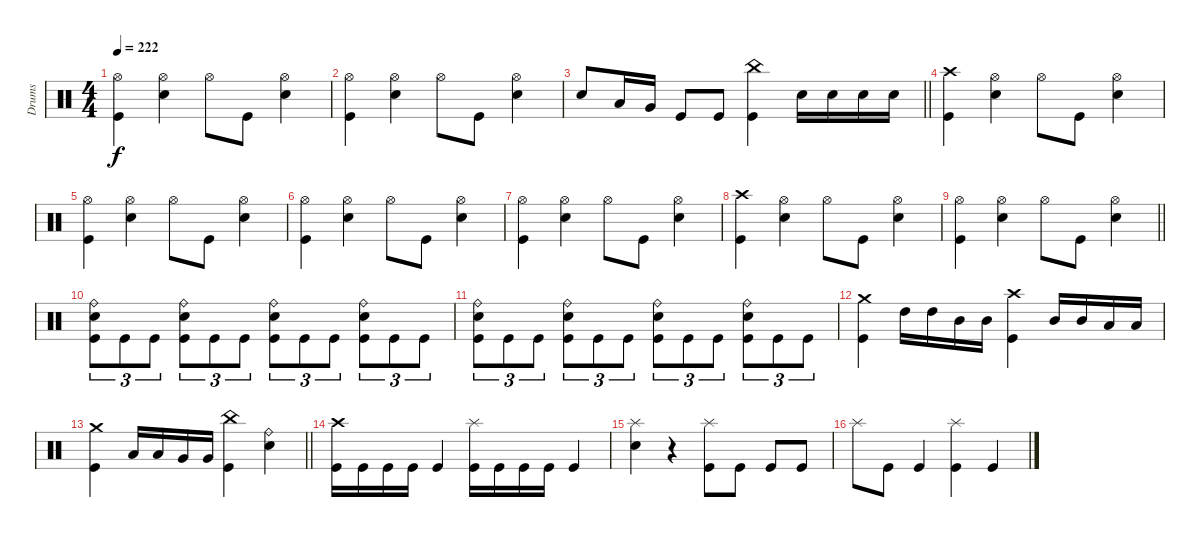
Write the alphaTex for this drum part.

\track ("Drums" "Drums") {instrument percussion}
\staff
\articulation defaults
\ts (4 4)
\tempo 222
\clef neutral
\ks c
("Hi-Hat (open)" "Kick (hit)").4{dy f} ("Hi-Hat (open)" "Electric Snare (hit)").4 "Hi-Hat (open)".8 "Kick (hit)".8 ("Hi-Hat (open)" "Electric Snare (hit)").4 |
("Hi-Hat (open)" "Kick (hit)").4 ("Hi-Hat (open)" "Electric Snare (hit)").4 "Hi-Hat (open)".8 "Kick (hit)".8 ("Hi-Hat (open)" "Electric Snare (hit)").4 |
\barLineRight lightlight "Electric Snare (hit)".8 "Low Tom (hit)".16 "Very Low Tom (hit)".16 "Kick (hit)".8 "Kick (hit)".8
("China (hit)" "Kick (hit)").4 "Electric Snare (hit)".16 "Electric Snare (hit)".16 "Electric Snare (hit)".16 "Electric Snare (hit)".16 |
("Crash high (hit)" "Kick (hit)").4 ("Hi-Hat (open)" "Electric Snare (hit)").4 "Hi-Hat (open)".8 "Kick (hit)".8 ("Hi-Hat (open)" "Electric Snare (hit)").4 |
("Hi-Hat (open)" "Kick (hit)").4 ("Hi-Hat (open)" "Electric Snare (hit)").4 "Hi-Hat (open)".8 "Kick (hit)".8 ("Hi-Hat (open)" "Electric Snare (hit)").4 |
("Hi-Hat (open)" "Kick (hit)").4 ("Hi-Hat (open)" "Electric Snare (hit)").4 "Hi-Hat (open)".8 "Kick (hit)".8 ("Hi-Hat (open)" "Electric Snare (hit)").4 |
("Hi-Hat (open)" "Kick (hit)").4 ("Hi-Hat (open)" "Electric Snare (hit)").4 "Hi-Hat (open)".8 "Kick (hit)".8 ("Hi-Hat (open)" "Electric Snare (hit)").4 |
("Crash high (hit)" "Kick (hit)").4 ("Hi-Hat (open)" "Electric Snare (hit)").4 "Hi-Hat (open)".8 "Kick (hit)".8 ("Hi-Hat (open)" "Electric Snare (hit)").4 |
\barLineRight lightlight
("Hi-Hat (open)" "Kick (hit)").4 ("Hi-Hat (open)" "Electric Snare (hit)").4 "Hi-Hat (open)".8 "Kick (hit)".8 ("Hi-Hat (open)" "Electric Snare (hit)").4 |
("Ride (bell)" "Electric Snare (hit)" "Kick (hit)").8{tu (3 2)} "Kick (hit)".8{tu (3 2)} "Kick (hit)".8{tu (3 2)} ("Ride (bell)" "Electric Snare (hit)" "Kick (hit)").8{tu (3 2)} "Kick (hit)".8{tu (3 2)} "Kick (hit)".8{tu (3 2)} ("Ride (bell)" "Electric Snare (hit)" "Kick (hit)").8{tu (3 2)} "Kick (hit)".8{tu (3 2)} "Kick (hit)".8{tu (3 2)} ("Ride (bell)" "Electric Snare (hit)" "Kick (hit)").8{tu (3 2)} "Kick (hit)".8{tu (3 2)} "Kick (hit)".8{tu (3 2)} |
("Ride (bell)" "Electric Snare (hit)" "Kick (hit)").8{tu (3 2)} "Kick (hit)".8{tu (3 2)} "Kick (hit)".8{tu (3 2)} ("Ride (bell)" "Electric Snare (hit)" "Kick (hit)").8{tu (3 2)} "Kick (hit)".8{tu (3 2)} "Kick (hit)".8{tu (3 2)} ("Ride (bell)" "Electric Snare (hit)" "Kick (hit)").8{tu (3 2)} "Kick (hit)".8{tu (3 2)} "Kick (hit)".8{tu (3 2)} ("Ride (bell)" "Electric Snare (hit)" "Kick (hit)").8{tu (3 2)} "Kick (hit)".8{tu (3 2)} "Kick (hit)".8{tu (3 2)} |
("Crash medium (hit)" "Kick (hit)").4 "High Tom (hit)".16 "High Tom (hit)".16 "Mid Tom (hit)".16 "Mid Tom (hit)".16 ("Crash high (hit)" "Kick (hit)").4 "Mid Tom (hit)".16 "Mid Tom (hit)".16 "Low Tom (hit)".16 "Low Tom (hit)".16 |
\barLineRight lightlight
("Crash medium (hit)" "Kick (hit)").4 "Low Tom (hit)".16 "Low Tom (hit)".16 "Very Low Tom (hit)".16 "Very Low Tom (hit)".16 ("China (hit)" "Kick (hit)").4 ("Ride (bell)" "Electric Snare (hit)").4 |
\section ("" "")
("Crash high (hit)" "Kick (hit)").16 "Kick (hit)".16 "Kick (hit)".16 "Kick (hit)".16 "Kick (hit)".4 ("Splash (hit)" "Kick (hit)").16 "Kick (hit)".16 "Kick (hit)".16 "Kick (hit)".16 "Kick (hit)".4 |
("Splash (hit)" "Electric Snare (hit)").4 r.4 ("Splash (hit)" "Kick (hit)").8 "Kick (hit)".8 "Kick (hit)".8 "Kick (hit)".8 |
"Splash (hit)".8 "Kick (hit)".8 "Kick (hit)".4 ("Splash (hit)" "Kick (hit)").4 "Kick (hit)".4
